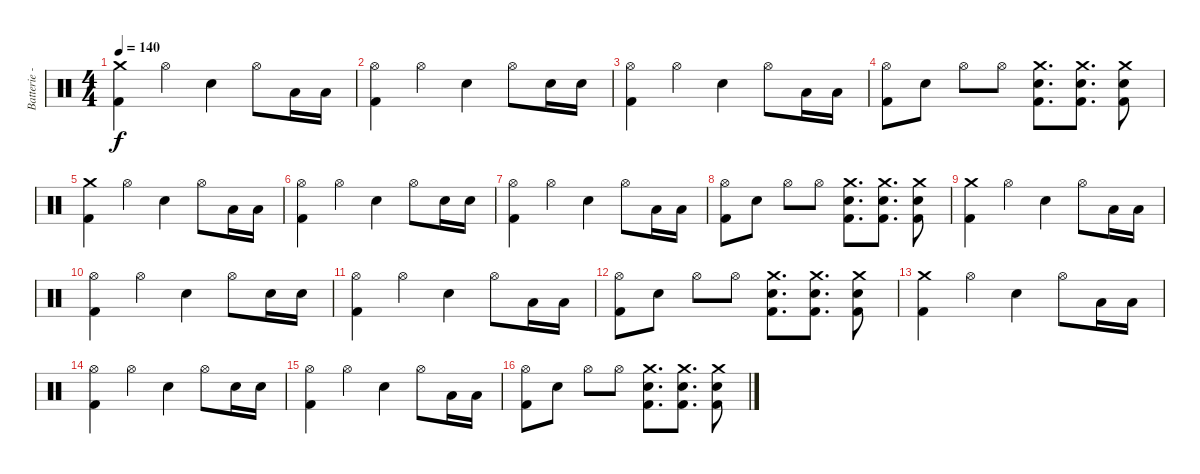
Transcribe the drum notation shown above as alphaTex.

\track ("Batterie - Anders Johansson" "Batterie -") {instrument percussion}
\staff {score}
\articulation defaults
\ts (4 4)
\tempo 140
\clef neutral
\ks c
("Crash medium (hit)" "Kick (hit) 2").4{dy f} "Hi-Hat (open)".4 "Electric Snare (hit)".4 "Hi-Hat (open)".8 "Low Tom (hit)".16 "Low Tom (hit)".16 |
("Hi-Hat (open)" "Kick (hit) 2").4 "Hi-Hat (open)".4 "Electric Snare (hit)".4 "Hi-Hat (open)".8 "Electric Snare (hit)".16 "Electric Snare (hit)".16 |
("Hi-Hat (open)" "Kick (hit) 2").4 "Hi-Hat (open)".4 "Electric Snare (hit)".4 "Hi-Hat (open)".8 "Low Tom (hit)".16 "Low Tom (hit)".16 |
("Hi-Hat (open)" "Kick (hit) 2").8 "Electric Snare (hit)".8 "Hi-Hat (open)".8 "Hi-Hat (open)".8 ("Crash medium (hit)" "Electric Snare (hit)" "Kick (hit) 2").8{d} ("Crash medium (hit)" "Electric Snare (hit)" "Kick (hit) 2").8{d} ("Crash medium (hit)" "Electric Snare (hit)" "Kick (hit) 2").8 |
("Crash medium (hit)" "Kick (hit) 2").4 "Hi-Hat (open)".4 "Electric Snare (hit)".4 "Hi-Hat (open)".8 "Low Tom (hit)".16 "Low Tom (hit)".16 |
("Hi-Hat (open)" "Kick (hit) 2").4 "Hi-Hat (open)".4 "Electric Snare (hit)".4 "Hi-Hat (open)".8 "Electric Snare (hit)".16 "Electric Snare (hit)".16 |
("Hi-Hat (open)" "Kick (hit) 2").4 "Hi-Hat (open)".4 "Electric Snare (hit)".4 "Hi-Hat (open)".8 "Low Tom (hit)".16 "Low Tom (hit)".16 |
("Hi-Hat (open)" "Kick (hit) 2").8 "Electric Snare (hit)".8 "Hi-Hat (open)".8 "Hi-Hat (open)".8 ("Crash medium (hit)" "Electric Snare (hit)" "Kick (hit) 2").8{d} ("Crash medium (hit)" "Electric Snare (hit)" "Kick (hit) 2").8{d} ("Crash medium (hit)" "Electric Snare (hit)" "Kick (hit) 2").8 |
("Crash medium (hit)" "Kick (hit) 2").4 "Hi-Hat (open)".4 "Electric Snare (hit)".4 "Hi-Hat (open)".8 "Low Tom (hit)".16 "Low Tom (hit)".16 |
("Hi-Hat (open)" "Kick (hit) 2").4 "Hi-Hat (open)".4 "Electric Snare (hit)".4 "Hi-Hat (open)".8 "Electric Snare (hit)".16 "Electric Snare (hit)".16 |
("Hi-Hat (open)" "Kick (hit) 2").4 "Hi-Hat (open)".4 "Electric Snare (hit)".4 "Hi-Hat (open)".8 "Low Tom (hit)".16 "Low Tom (hit)".16 |
("Hi-Hat (open)" "Kick (hit) 2").8 "Electric Snare (hit)".8 "Hi-Hat (open)".8 "Hi-Hat (open)".8 ("Crash medium (hit)" "Electric Snare (hit)" "Kick (hit) 2").8{d} ("Crash medium (hit)" "Electric Snare (hit)" "Kick (hit) 2").8{d} ("Crash medium (hit)" "Electric Snare (hit)" "Kick (hit) 2").8 |
("Crash medium (hit)" "Kick (hit) 2").4 "Hi-Hat (open)".4 "Electric Snare (hit)".4 "Hi-Hat (open)".8 "Low Tom (hit)".16 "Low Tom (hit)".16 |
("Hi-Hat (open)" "Kick (hit) 2").4 "Hi-Hat (open)".4 "Electric Snare (hit)".4 "Hi-Hat (open)".8 "Electric Snare (hit)".16 "Electric Snare (hit)".16 |
("Hi-Hat (open)" "Kick (hit) 2").4 "Hi-Hat (open)".4 "Electric Snare (hit)".4 "Hi-Hat (open)".8 "Low Tom (hit)".16 "Low Tom (hit)".16 |
("Hi-Hat (open)" "Kick (hit) 2").8 "Electric Snare (hit)".8 "Hi-Hat (open)".8 "Hi-Hat (open)".8 ("Crash medium (hit)" "Electric Snare (hit)" "Kick (hit) 2").8{d} ("Crash medium (hit)" "Electric Snare (hit)" "Kick (hit) 2").8{d} ("Crash medium (hit)" "Electric Snare (hit)" "Kick (hit) 2").8
